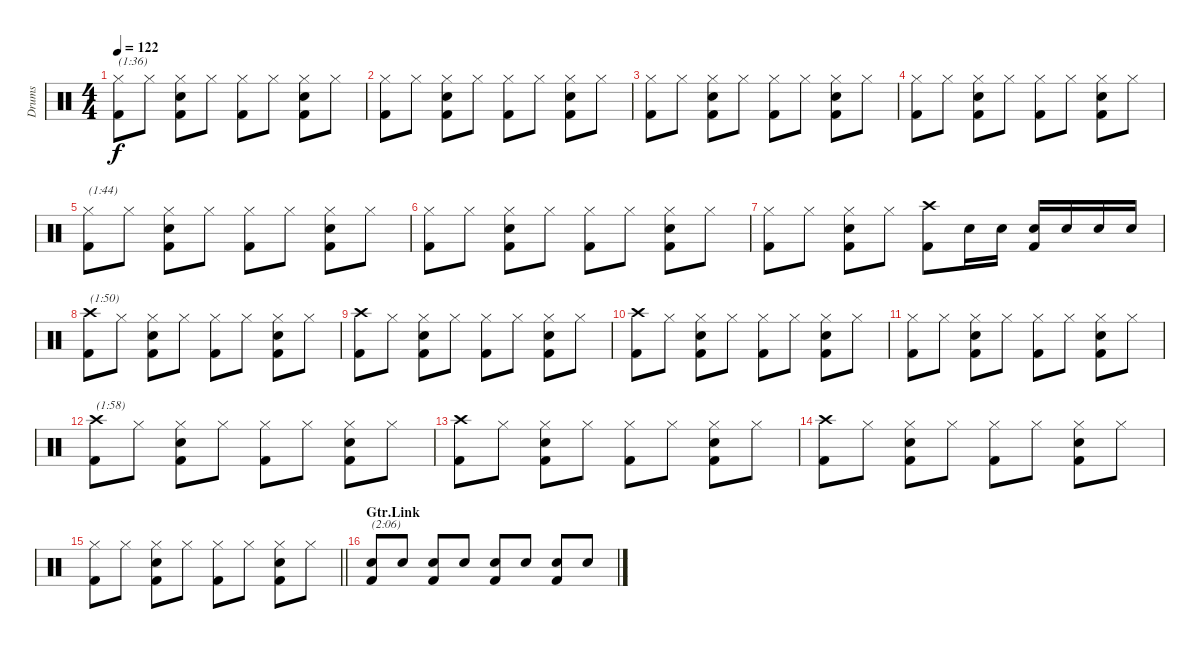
\track ("Drums" "Drums") {instrument percussion}
\staff {score}
\articulation defaults
\ts (4 4)
\tempo 122
\clef neutral
\ks c
("Hi-Hat (closed)" "Kick (hit) 2").8{txt "(1:36)" dy f} "Hi-Hat (closed)".8 ("Hi-Hat (closed)" "Electric Snare (hit)" "Kick (hit) 2").8 "Hi-Hat (closed)".8 ("Hi-Hat (closed)" "Kick (hit) 2").8 "Hi-Hat (closed)".8 ("Hi-Hat (closed)" "Electric Snare (hit)" "Kick (hit) 2").8 "Hi-Hat (closed)".8 |
("Hi-Hat (closed)" "Kick (hit) 2").8 "Hi-Hat (closed)".8 ("Hi-Hat (closed)" "Electric Snare (hit)" "Kick (hit) 2").8 "Hi-Hat (closed)".8 ("Hi-Hat (closed)" "Kick (hit) 2").8 "Hi-Hat (closed)".8 ("Hi-Hat (closed)" "Electric Snare (hit)" "Kick (hit) 2").8 "Hi-Hat (closed)".8 |
("Hi-Hat (closed)" "Kick (hit) 2").8 "Hi-Hat (closed)".8 ("Hi-Hat (closed)" "Electric Snare (hit)" "Kick (hit) 2").8 "Hi-Hat (closed)".8 ("Hi-Hat (closed)" "Kick (hit) 2").8 "Hi-Hat (closed)".8 ("Hi-Hat (closed)" "Electric Snare (hit)" "Kick (hit) 2").8 "Hi-Hat (closed)".8 |
("Hi-Hat (closed)" "Kick (hit) 2").8 "Hi-Hat (closed)".8 ("Hi-Hat (closed)" "Electric Snare (hit)" "Kick (hit) 2").8 "Hi-Hat (closed)".8 ("Hi-Hat (closed)" "Kick (hit) 2").8 "Hi-Hat (closed)".8 ("Hi-Hat (closed)" "Electric Snare (hit)" "Kick (hit) 2").8 "Hi-Hat (closed)".8 |
("Hi-Hat (closed)" "Kick (hit) 2").8{txt "(1:44)"} "Hi-Hat (closed)".8 ("Hi-Hat (closed)" "Electric Snare (hit)" "Kick (hit) 2").8 "Hi-Hat (closed)".8 ("Hi-Hat (closed)" "Kick (hit) 2").8 "Hi-Hat (closed)".8 ("Hi-Hat (closed)" "Electric Snare (hit)" "Kick (hit) 2").8 "Hi-Hat (closed)".8 |
("Hi-Hat (closed)" "Kick (hit) 2").8 "Hi-Hat (closed)".8 ("Hi-Hat (closed)" "Electric Snare (hit)" "Kick (hit) 2").8 "Hi-Hat (closed)".8 ("Hi-Hat (closed)" "Kick (hit) 2").8 "Hi-Hat (closed)".8 ("Hi-Hat (closed)" "Electric Snare (hit)" "Kick (hit) 2").8 "Hi-Hat (closed)".8 |
("Hi-Hat (closed)" "Kick (hit) 2").8 "Hi-Hat (closed)".8 ("Hi-Hat (closed)" "Electric Snare (hit)" "Kick (hit) 2").8 "Hi-Hat (closed)".8 ("Crash high (hit)" "Kick (hit) 2").8 "Electric Snare (hit)".16 "Electric Snare (hit)".16 ("Electric Snare (hit)" "Kick (hit) 2").16 "Electric Snare (hit)".16 "Electric Snare (hit)".16 "Electric Snare (hit)".16 |
("Crash high (hit)" "Kick (hit) 2").8{txt "(1:50)"} "Hi-Hat (closed)".8 ("Hi-Hat (closed)" "Electric Snare (hit)" "Kick (hit) 2").8 "Hi-Hat (closed)".8 ("Hi-Hat (closed)" "Kick (hit) 2").8 "Hi-Hat (closed)".8 ("Hi-Hat (closed)" "Electric Snare (hit)" "Kick (hit) 2").8 "Hi-Hat (closed)".8 |
("Crash high (hit)" "Kick (hit) 2").8 "Hi-Hat (closed)".8 ("Hi-Hat (closed)" "Electric Snare (hit)" "Kick (hit) 2").8 "Hi-Hat (closed)".8 ("Hi-Hat (closed)" "Kick (hit) 2").8 "Hi-Hat (closed)".8 ("Hi-Hat (closed)" "Electric Snare (hit)" "Kick (hit) 2").8 "Hi-Hat (closed)".8 |
("Crash high (hit)" "Kick (hit) 2").8 "Hi-Hat (closed)".8 ("Hi-Hat (closed)" "Electric Snare (hit)" "Kick (hit) 2").8 "Hi-Hat (closed)".8 ("Hi-Hat (closed)" "Kick (hit) 2").8 "Hi-Hat (closed)".8 ("Hi-Hat (closed)" "Electric Snare (hit)" "Kick (hit) 2").8 "Hi-Hat (closed)".8 |
("Hi-Hat (closed)" "Kick (hit) 2").8 "Hi-Hat (closed)".8 ("Hi-Hat (closed)" "Electric Snare (hit)" "Kick (hit) 2").8 "Hi-Hat (closed)".8 ("Hi-Hat (closed)" "Kick (hit) 2").8 "Hi-Hat (closed)".8 ("Hi-Hat (closed)" "Electric Snare (hit)" "Kick (hit) 2").8 "Hi-Hat (closed)".8 |
("Crash high (hit)" "Kick (hit) 2").8{txt "(1:58)"} "Hi-Hat (closed)".8 ("Hi-Hat (closed)" "Electric Snare (hit)" "Kick (hit) 2").8 "Hi-Hat (closed)".8 ("Hi-Hat (closed)" "Kick (hit) 2").8 "Hi-Hat (closed)".8 ("Hi-Hat (closed)" "Electric Snare (hit)" "Kick (hit) 2").8 "Hi-Hat (closed)".8 |
("Crash high (hit)" "Kick (hit) 2").8 "Hi-Hat (closed)".8 ("Hi-Hat (closed)" "Electric Snare (hit)" "Kick (hit) 2").8 "Hi-Hat (closed)".8 ("Hi-Hat (closed)" "Kick (hit) 2").8 "Hi-Hat (closed)".8 ("Hi-Hat (closed)" "Electric Snare (hit)" "Kick (hit) 2").8 "Hi-Hat (closed)".8 |
("Crash high (hit)" "Kick (hit) 2").8 "Hi-Hat (closed)".8 ("Hi-Hat (closed)" "Electric Snare (hit)" "Kick (hit) 2").8 "Hi-Hat (closed)".8 ("Hi-Hat (closed)" "Kick (hit) 2").8 "Hi-Hat (closed)".8 ("Hi-Hat (closed)" "Electric Snare (hit)" "Kick (hit) 2").8 "Hi-Hat (closed)".8 |
\barLineRight lightlight
("Hi-Hat (closed)" "Kick (hit) 2").8 "Hi-Hat (closed)".8 ("Hi-Hat (closed)" "Electric Snare (hit)" "Kick (hit) 2").8 "Hi-Hat (closed)".8 ("Hi-Hat (closed)" "Kick (hit) 2").8 "Hi-Hat (closed)".8 ("Hi-Hat (closed)" "Electric Snare (hit)" "Kick (hit) 2").8 "Hi-Hat (closed)".8 |
\section ("" "Gtr.Link")
("Electric Snare (hit)" "Kick (hit) 2").8{txt "(2:06)"} "Electric Snare (hit)".8 ("Electric Snare (hit)" "Kick (hit) 2").8 "Electric Snare (hit)".8 ("Electric Snare (hit)" "Kick (hit) 2").8 "Electric Snare (hit)".8 ("Electric Snare (hit)" "Kick (hit) 2").8 "Electric Snare (hit)".8
